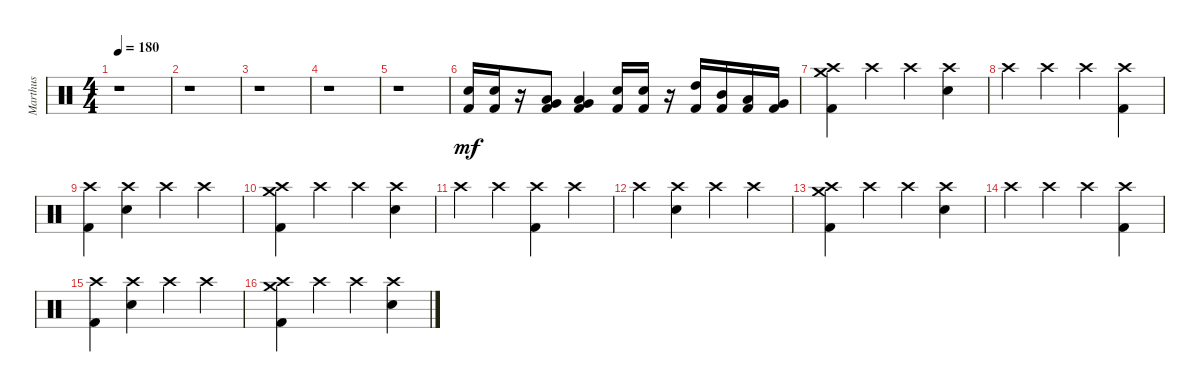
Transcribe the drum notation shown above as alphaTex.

\track ("Marthus" "Marthus") {instrument percussion}
\staff {score}
\articulation defaults
\ts (4 4)
\tempo 180
\clef neutral
\ks c
r.1{dy mf} |
r.1 |
r.1 |
r.1 |
r.1 |
("Electric Snare (hit)" "Kick (hit) 2").16 ("Electric Snare (hit)" "Kick (hit) 2").16 r.16 ("Very Low Tom (hit)" "Low Tom (hit)" "Kick (hit) 2").8 ("Very Low Tom (hit)" "Low Tom (hit)" "Kick (hit) 2").4 ("Electric Snare (hit)" "Kick (hit) 2").16 ("Electric Snare (hit)" "Kick (hit) 2").16 r.16 ("High Tom (hit)" "Kick (hit) 2").16 ("Mid Tom (hit)" "Kick (hit) 2").16 ("Low Tom (hit)" "Kick (hit) 2").16 ("Very Low Tom (hit)" "Kick (hit) 2").16 |
("Crash medium (hit)" "Crash high (hit)" "Kick (hit) 2").4 "Crash high (hit)".4 "Crash high (hit)".4 ("Crash high (hit)" "Electric Snare (hit)").4 |
"Crash high (hit)".4 "Crash high (hit)".4 "Crash high (hit)".4 ("Crash high (hit)" "Kick (hit) 2").4 |
("Crash high (hit)" "Kick (hit) 2").4 ("Crash high (hit)" "Electric Snare (hit)").4 "Crash high (hit)".4 "Crash high (hit)".4 |
("Crash medium (hit)" "Crash high (hit)" "Kick (hit) 2").4 "Crash high (hit)".4 "Crash high (hit)".4 ("Crash high (hit)" "Electric Snare (hit)").4 |
"Crash high (hit)".4 "Crash high (hit)".4 ("Crash high (hit)" "Kick (hit) 2").4 "Crash high (hit)".4 |
"Crash high (hit)".4 ("Crash high (hit)" "Electric Snare (hit)").4 "Crash high (hit)".4 "Crash high (hit)".4 |
("Crash medium (hit)" "Crash high (hit)" "Kick (hit) 2").4 "Crash high (hit)".4 "Crash high (hit)".4 ("Crash high (hit)" "Electric Snare (hit)").4 |
"Crash high (hit)".4 "Crash high (hit)".4 "Crash high (hit)".4 ("Crash high (hit)" "Kick (hit) 2").4 |
("Crash high (hit)" "Kick (hit) 2").4 ("Crash high (hit)" "Electric Snare (hit)").4 "Crash high (hit)".4 "Crash high (hit)".4 |
("Crash medium (hit)" "Crash high (hit)" "Kick (hit) 2").4 "Crash high (hit)".4 "Crash high (hit)".4 ("Crash high (hit)" "Electric Snare (hit)").4
